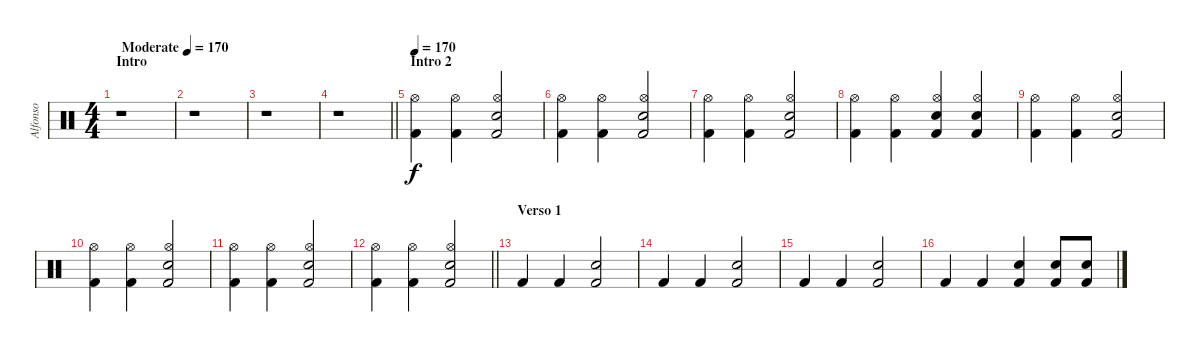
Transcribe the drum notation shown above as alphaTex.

\track ("Alfonso" "Alfonso") {instrument percussion}
\staff {score}
\articulation defaults
\ts (4 4)
\section ("" "Intro")
\tempo (170 "Moderate")
\tempo 140
\tempo (170 "Moderate")
\clef neutral
\ks c
r.1{dy f} |
r.1 |
r.1 |
\barLineRight lightlight
r.1 |
\section ("" "Intro 2")
\tempo 170
("Kick (hit) 2" "Hi-Hat (open)").4 ("Kick (hit) 2" "Hi-Hat (open)").4 ("Kick (hit) 2" "Snare (hit) 2" "Hi-Hat (open)").2 |
("Kick (hit) 2" "Hi-Hat (open)").4 ("Kick (hit) 2" "Hi-Hat (open)").4 ("Kick (hit) 2" "Snare (hit) 2" "Hi-Hat (open)").2 |
("Kick (hit) 2" "Hi-Hat (open)").4 ("Kick (hit) 2" "Hi-Hat (open)").4 ("Kick (hit) 2" "Snare (hit) 2" "Hi-Hat (open)").2 |
("Kick (hit) 2" "Hi-Hat (open)").4 ("Kick (hit) 2" "Hi-Hat (open)").4 ("Kick (hit) 2" "Snare (hit) 2" "Hi-Hat (open)").4 ("Kick (hit) 2" "Snare (hit) 2" "Hi-Hat (open)").4 |
("Kick (hit) 2" "Hi-Hat (open)").4 ("Kick (hit) 2" "Hi-Hat (open)").4 ("Kick (hit) 2" "Snare (hit) 2" "Hi-Hat (open)").2 |
("Kick (hit) 2" "Hi-Hat (open)").4 ("Kick (hit) 2" "Hi-Hat (open)").4 ("Kick (hit) 2" "Snare (hit) 2" "Hi-Hat (open)").2 |
("Kick (hit) 2" "Hi-Hat (open)").4 ("Kick (hit) 2" "Hi-Hat (open)").4 ("Kick (hit) 2" "Snare (hit) 2" "Hi-Hat (open)").2 |
\barLineRight lightlight
("Kick (hit) 2" "Hi-Hat (open)").4 ("Kick (hit) 2" "Hi-Hat (open)").4 ("Kick (hit) 2" "Snare (hit) 2" "Hi-Hat (open)").2 |
\section ("" "Verso 1")
"Kick (hit) 2".4 "Kick (hit) 2".4 ("Kick (hit) 2" "Snare (hit) 2").2 |
"Kick (hit) 2".4 "Kick (hit) 2".4 ("Kick (hit) 2" "Snare (hit) 2").2 |
"Kick (hit) 2".4 "Kick (hit) 2".4 ("Kick (hit) 2" "Snare (hit) 2").2 |
"Kick (hit) 2".4 "Kick (hit) 2".4 ("Kick (hit) 2" "Snare (hit) 2").4 ("Kick (hit) 2" "Snare (hit) 2").8 ("Kick (hit) 2" "Snare (hit) 2").8
